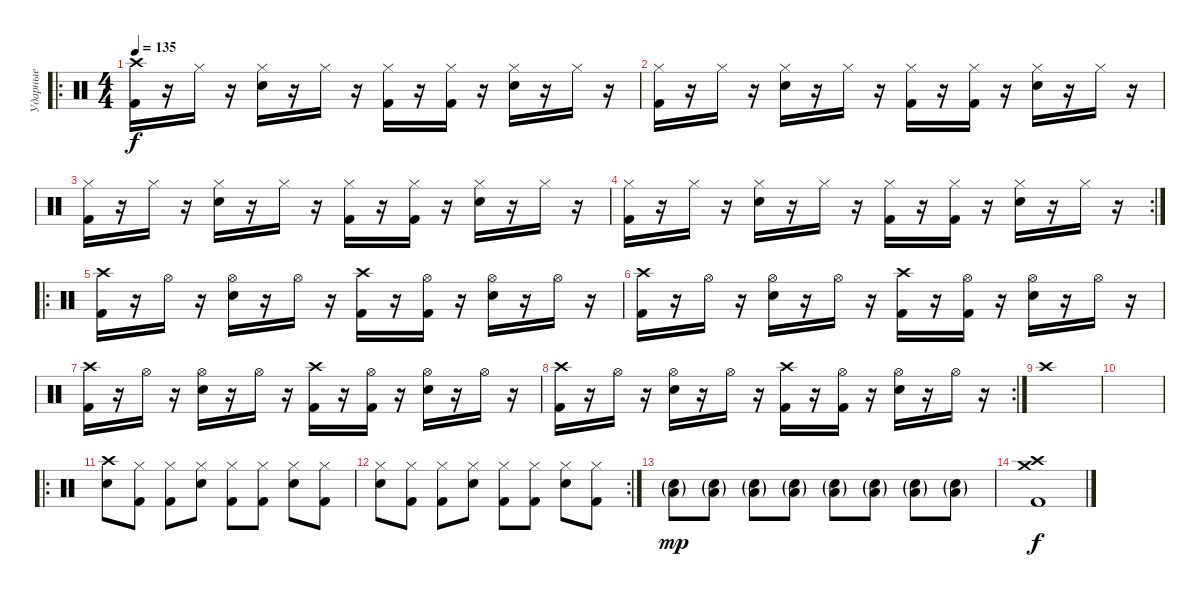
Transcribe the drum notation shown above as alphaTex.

\track ("Ударные" "Ударные") {instrument percussion}
\staff {score}
\articulation defaults
\ro
\ts (4 4)
\tempo 135
\clef neutral
\ks c
("Crash high (hit)" "Kick (hit) 2").16{dy f} r.16 "Hi-Hat (closed)".16 r.16 ("Hi-Hat (closed)" "Electric Snare (hit)").16 r.16 "Hi-Hat (closed)".16 r.16 ("Hi-Hat (closed)" "Kick (hit) 2").16 r.16 ("Hi-Hat (closed)" "Kick (hit) 2").16 r.16 ("Hi-Hat (closed)" "Electric Snare (hit)").16 r.16 "Hi-Hat (closed)".16 r.16 |
("Hi-Hat (closed)" "Kick (hit) 2").16 r.16 "Hi-Hat (closed)".16 r.16 ("Hi-Hat (closed)" "Electric Snare (hit)").16 r.16 "Hi-Hat (closed)".16 r.16 ("Hi-Hat (closed)" "Kick (hit) 2").16 r.16 ("Hi-Hat (closed)" "Kick (hit) 2").16 r.16 ("Hi-Hat (closed)" "Electric Snare (hit)").16 r.16 "Hi-Hat (closed)".16 r.16 |
("Hi-Hat (closed)" "Kick (hit) 2").16 r.16 "Hi-Hat (closed)".16 r.16 ("Hi-Hat (closed)" "Electric Snare (hit)").16 r.16 "Hi-Hat (closed)".16 r.16 ("Hi-Hat (closed)" "Kick (hit) 2").16 r.16 ("Hi-Hat (closed)" "Kick (hit) 2").16 r.16 ("Hi-Hat (closed)" "Electric Snare (hit)").16 r.16 "Hi-Hat (closed)".16 r.16 |
\rc 2
("Hi-Hat (closed)" "Kick (hit) 2").16 r.16 "Hi-Hat (closed)".16 r.16 ("Hi-Hat (closed)" "Electric Snare (hit)").16 r.16 "Hi-Hat (closed)".16 r.16 ("Hi-Hat (closed)" "Kick (hit) 2").16 r.16 ("Hi-Hat (closed)" "Kick (hit) 2").16 r.16 ("Hi-Hat (closed)" "Electric Snare (hit)").16 r.16 "Hi-Hat (closed)".16 r.16 |
\ro
("Crash high (hit)" "Kick (hit) 2").16 r.16 "Hi-Hat (open)".16 r.16 ("Hi-Hat (open)" "Electric Snare (hit)").16 r.16 "Hi-Hat (open)".16 r.16 ("Crash high (hit)" "Kick (hit) 2").16 r.16 ("Hi-Hat (open)" "Kick (hit) 2").16 r.16 ("Hi-Hat (open)" "Electric Snare (hit)").16 r.16 "Hi-Hat (open)".16 r.16 |
("Crash high (hit)" "Kick (hit) 2").16 r.16 "Hi-Hat (open)".16 r.16 ("Hi-Hat (open)" "Electric Snare (hit)").16 r.16 "Hi-Hat (open)".16 r.16 ("Crash high (hit)" "Kick (hit) 2").16 r.16 ("Hi-Hat (open)" "Kick (hit) 2").16 r.16 ("Hi-Hat (open)" "Electric Snare (hit)").16 r.16 "Hi-Hat (open)".16 r.16 |
("Crash high (hit)" "Kick (hit) 2").16 r.16 "Hi-Hat (open)".16 r.16 ("Hi-Hat (open)" "Electric Snare (hit)").16 r.16 "Hi-Hat (open)".16 r.16 ("Crash high (hit)" "Kick (hit) 2").16 r.16 ("Hi-Hat (open)" "Kick (hit) 2").16 r.16 ("Hi-Hat (open)" "Electric Snare (hit)").16 r.16 "Hi-Hat (open)".16 r.16 |
\rc 2
("Crash high (hit)" "Kick (hit) 2").16 r.16 "Hi-Hat (open)".16 r.16 ("Hi-Hat (open)" "Electric Snare (hit)").16 r.16 "Hi-Hat (open)".16 r.16 ("Crash high (hit)" "Kick (hit) 2").16 r.16 ("Hi-Hat (open)" "Kick (hit) 2").16 r.16 ("Hi-Hat (open)" "Electric Snare (hit)").16 r.16 "Hi-Hat (open)".16 r.16 |
"Crash high (hit)".1 |
|
\ro
("Crash high (hit)" "Electric Snare (hit)").8 ("Hi-Hat (closed)" "Kick (hit) 2").8 ("Hi-Hat (closed)" "Kick (hit) 2").8 ("Hi-Hat (closed)" "Electric Snare (hit)").8 ("Hi-Hat (closed)" "Kick (hit) 2").8 ("Hi-Hat (closed)" "Kick (hit) 2").8 ("Hi-Hat (closed)" "Electric Snare (hit)").8 ("Hi-Hat (closed)" "Kick (hit) 2").8 |
\rc 2
("Hi-Hat (closed)" "Electric Snare (hit)").8 ("Hi-Hat (closed)" "Kick (hit) 2").8 ("Hi-Hat (closed)" "Kick (hit) 2").8 ("Hi-Hat (closed)" "Electric Snare (hit)").8 ("Hi-Hat (closed)" "Kick (hit) 2").8 ("Hi-Hat (closed)" "Kick (hit) 2").8 ("Hi-Hat (closed)" "Electric Snare (hit)").8 ("Hi-Hat (closed)" "Kick (hit) 2").8 |
("Low Floor Tom (hit)"{g} "Electric Snare (hit)"{g}).8{dy mp} ("Low Floor Tom (hit)"{g} "Electric Snare (hit)"{g}).8 ("Low Floor Tom (hit)"{g} "Electric Snare (hit)"{g}).8 ("Low Floor Tom (hit)"{g} "Electric Snare (hit)"{g}).8 ("Low Floor Tom (hit)"{g} "Electric Snare (hit)"{g}).8 ("Low Floor Tom (hit)"{g} "Electric Snare (hit)"{g}).8 ("Low Floor Tom (hit)"{g} "Electric Snare (hit)"{g}).8 ("Low Floor Tom (hit)"{g} "Electric Snare (hit)"{g}).8 |
("Crash high (hit)" "Crash medium (hit)" "Kick (hit) 2").1{dy f}
